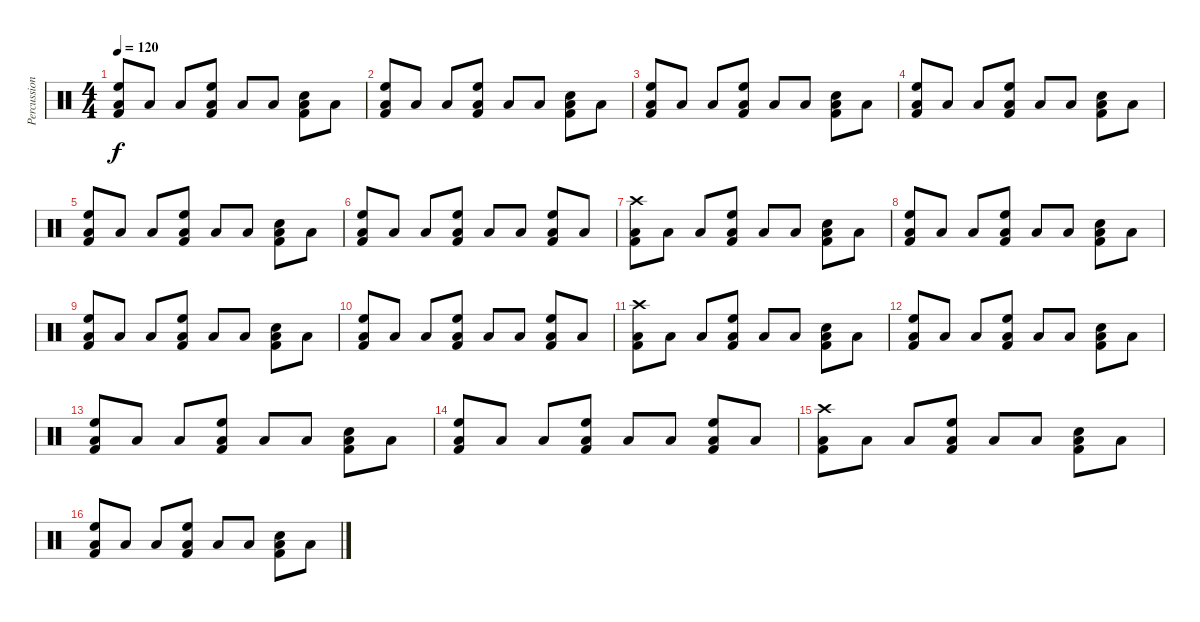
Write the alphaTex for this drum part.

\track ("Percussion" "Percussion") {instrument percussion}
\staff {score}
\articulation defaults
\ts (4 4)
\tempo 120
\clef neutral
\ks c
("Low Floor Tom (hit)" "High Floor Tom (hit)" "Kick (hit) 2").8{dy f} "Low Floor Tom (hit)".8 "Low Floor Tom (hit)".8 ("Low Floor Tom (hit)" "High Floor Tom (hit)" "Kick (hit) 2").8 "Low Floor Tom (hit)".8 "Low Floor Tom (hit)".8 ("Low Floor Tom (hit)" "Electric Snare (hit)" "Kick (hit) 2").8 "Low Floor Tom (hit)".8 |
("Low Floor Tom (hit)" "High Floor Tom (hit)" "Kick (hit) 2").8 "Low Floor Tom (hit)".8 "Low Floor Tom (hit)".8 ("Low Floor Tom (hit)" "High Floor Tom (hit)" "Kick (hit) 2").8 "Low Floor Tom (hit)".8 "Low Floor Tom (hit)".8 ("Low Floor Tom (hit)" "Electric Snare (hit)" "Kick (hit) 2").8 "Low Floor Tom (hit)".8 |
("Low Floor Tom (hit)" "High Floor Tom (hit)" "Kick (hit) 2").8 "Low Floor Tom (hit)".8 "Low Floor Tom (hit)".8 ("Low Floor Tom (hit)" "High Floor Tom (hit)" "Kick (hit) 2").8 "Low Floor Tom (hit)".8 "Low Floor Tom (hit)".8 ("Low Floor Tom (hit)" "Electric Snare (hit)" "Kick (hit) 2").8 "Low Floor Tom (hit)".8 |
("Low Floor Tom (hit)" "High Floor Tom (hit)" "Kick (hit) 2").8 "Low Floor Tom (hit)".8 "Low Floor Tom (hit)".8 ("Low Floor Tom (hit)" "High Floor Tom (hit)" "Kick (hit) 2").8 "Low Floor Tom (hit)".8 "Low Floor Tom (hit)".8 ("Low Floor Tom (hit)" "Electric Snare (hit)" "Kick (hit) 2").8 "Low Floor Tom (hit)".8 |
("Low Floor Tom (hit)" "High Floor Tom (hit)" "Kick (hit) 2").8 "Low Floor Tom (hit)".8 "Low Floor Tom (hit)".8 ("Low Floor Tom (hit)" "High Floor Tom (hit)" "Kick (hit) 2").8 "Low Floor Tom (hit)".8 "Low Floor Tom (hit)".8 ("Low Floor Tom (hit)" "Electric Snare (hit)" "Kick (hit) 2").8 "Low Floor Tom (hit)".8 |
("Low Floor Tom (hit)" "High Floor Tom (hit)" "Kick (hit) 2").8 "Low Floor Tom (hit)".8 "Low Floor Tom (hit)".8 ("Low Floor Tom (hit)" "High Floor Tom (hit)" "Kick (hit) 2").8 "Low Floor Tom (hit)".8 "Low Floor Tom (hit)".8 ("Low Floor Tom (hit)" "High Floor Tom (hit)" "Kick (hit) 2").8 "Low Floor Tom (hit)".8 |
("Low Floor Tom (hit)" "Crash high (hit)" "Kick (hit) 2").8 "Low Floor Tom (hit)".8 "Low Floor Tom (hit)".8 ("Low Floor Tom (hit)" "High Floor Tom (hit)" "Kick (hit) 2").8 "Low Floor Tom (hit)".8 "Low Floor Tom (hit)".8 ("Low Floor Tom (hit)" "Electric Snare (hit)" "Kick (hit) 2").8 "Low Floor Tom (hit)".8 |
("Low Floor Tom (hit)" "High Floor Tom (hit)" "Kick (hit) 2").8 "Low Floor Tom (hit)".8 "Low Floor Tom (hit)".8 ("Low Floor Tom (hit)" "High Floor Tom (hit)" "Kick (hit) 2").8 "Low Floor Tom (hit)".8 "Low Floor Tom (hit)".8 ("Low Floor Tom (hit)" "Electric Snare (hit)" "Kick (hit) 2").8 "Low Floor Tom (hit)".8 |
("Low Floor Tom (hit)" "High Floor Tom (hit)" "Kick (hit) 2").8 "Low Floor Tom (hit)".8 "Low Floor Tom (hit)".8 ("Low Floor Tom (hit)" "High Floor Tom (hit)" "Kick (hit) 2").8 "Low Floor Tom (hit)".8 "Low Floor Tom (hit)".8 ("Low Floor Tom (hit)" "Electric Snare (hit)" "Kick (hit) 2").8 "Low Floor Tom (hit)".8 |
("Low Floor Tom (hit)" "High Floor Tom (hit)" "Kick (hit) 2").8 "Low Floor Tom (hit)".8 "Low Floor Tom (hit)".8 ("Low Floor Tom (hit)" "High Floor Tom (hit)" "Kick (hit) 2").8 "Low Floor Tom (hit)".8 "Low Floor Tom (hit)".8 ("Low Floor Tom (hit)" "High Floor Tom (hit)" "Kick (hit) 2").8 "Low Floor Tom (hit)".8 |
("Low Floor Tom (hit)" "Crash high (hit)" "Kick (hit) 2").8 "Low Floor Tom (hit)".8 "Low Floor Tom (hit)".8 ("Low Floor Tom (hit)" "High Floor Tom (hit)" "Kick (hit) 2").8 "Low Floor Tom (hit)".8 "Low Floor Tom (hit)".8 ("Low Floor Tom (hit)" "Electric Snare (hit)" "Kick (hit) 2").8 "Low Floor Tom (hit)".8 |
("Low Floor Tom (hit)" "High Floor Tom (hit)" "Kick (hit) 2").8 "Low Floor Tom (hit)".8 "Low Floor Tom (hit)".8 ("Low Floor Tom (hit)" "High Floor Tom (hit)" "Kick (hit) 2").8 "Low Floor Tom (hit)".8 "Low Floor Tom (hit)".8 ("Low Floor Tom (hit)" "Electric Snare (hit)" "Kick (hit) 2").8 "Low Floor Tom (hit)".8 |
("Low Floor Tom (hit)" "High Floor Tom (hit)" "Kick (hit) 2").8 "Low Floor Tom (hit)".8 "Low Floor Tom (hit)".8 ("Low Floor Tom (hit)" "High Floor Tom (hit)" "Kick (hit) 2").8 "Low Floor Tom (hit)".8 "Low Floor Tom (hit)".8 ("Low Floor Tom (hit)" "Electric Snare (hit)" "Kick (hit) 2").8 "Low Floor Tom (hit)".8 |
("Low Floor Tom (hit)" "High Floor Tom (hit)" "Kick (hit) 2").8 "Low Floor Tom (hit)".8 "Low Floor Tom (hit)".8 ("Low Floor Tom (hit)" "High Floor Tom (hit)" "Kick (hit) 2").8 "Low Floor Tom (hit)".8 "Low Floor Tom (hit)".8 ("Low Floor Tom (hit)" "High Floor Tom (hit)" "Kick (hit) 2").8 "Low Floor Tom (hit)".8 |
("Low Floor Tom (hit)" "Crash high (hit)" "Kick (hit) 2").8 "Low Floor Tom (hit)".8 "Low Floor Tom (hit)".8 ("Low Floor Tom (hit)" "High Floor Tom (hit)" "Kick (hit) 2").8 "Low Floor Tom (hit)".8 "Low Floor Tom (hit)".8 ("Low Floor Tom (hit)" "Electric Snare (hit)" "Kick (hit) 2").8 "Low Floor Tom (hit)".8 |
("Low Floor Tom (hit)" "High Floor Tom (hit)" "Kick (hit) 2").8 "Low Floor Tom (hit)".8 "Low Floor Tom (hit)".8 ("Low Floor Tom (hit)" "High Floor Tom (hit)" "Kick (hit) 2").8 "Low Floor Tom (hit)".8 "Low Floor Tom (hit)".8 ("Low Floor Tom (hit)" "Electric Snare (hit)" "Kick (hit) 2").8 "Low Floor Tom (hit)".8
